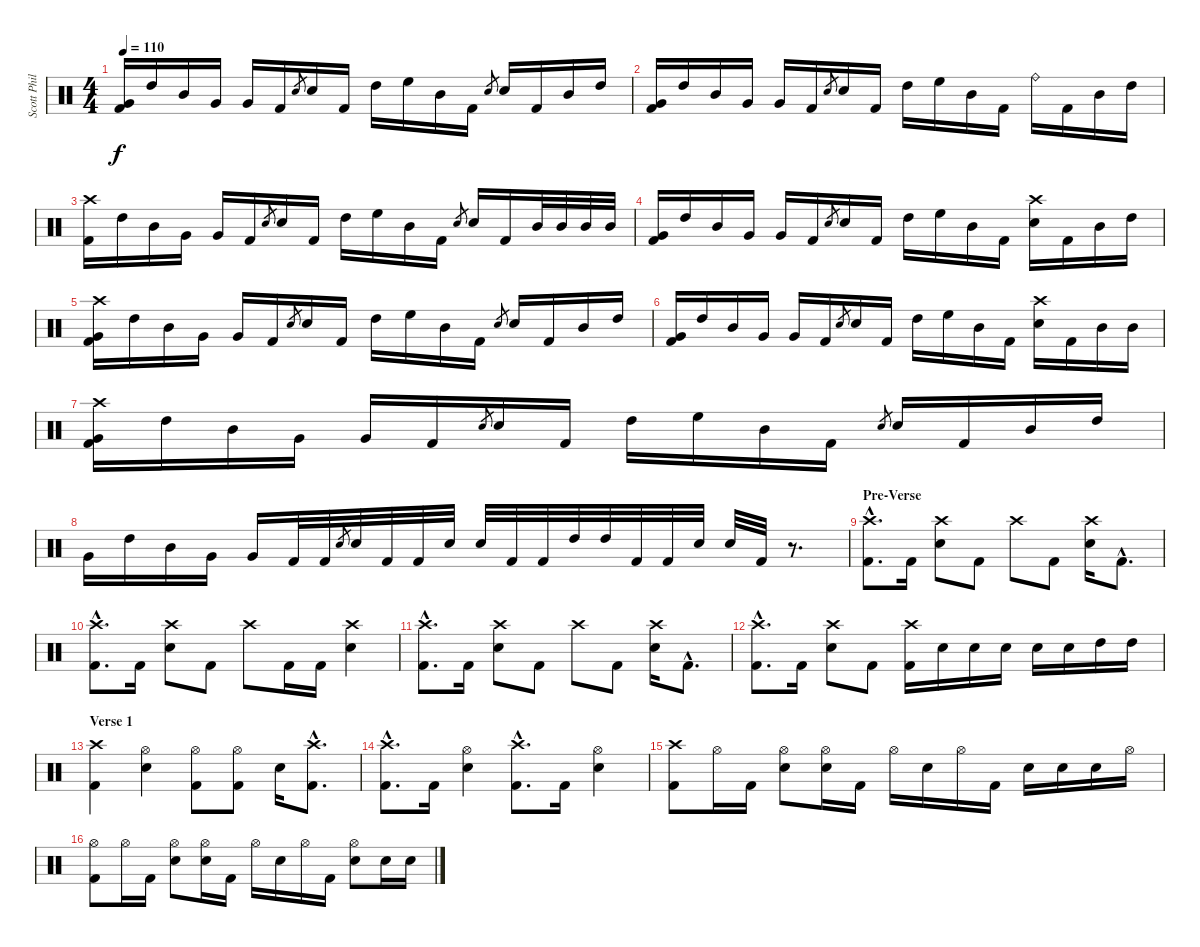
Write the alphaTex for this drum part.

\track ("Scott Phillips" "Scott Phil") {instrument percussion}
\staff {score}
\articulation defaults
\ts (4 4)
\tempo 110
\clef neutral
\ks c
("Very Low Tom (hit)" "Kick (hit) 2").16{dy f} "High Tom (hit)".16 "Mid Tom (hit)".16 "Very Low Tom (hit)".16 "Very Low Tom (hit)".16 "Kick (hit) 2".16 "Snare (hit) 2".8{gr} "Snare (hit) 2".16 "Kick (hit) 2".16 "High Tom (hit)".16 "High Floor Tom (hit)".16 "Mid Tom (hit)".16 "Kick (hit) 2".16 "Snare (hit) 2".8{gr} "Snare (hit) 2".16 "Kick (hit) 2".16 "Mid Tom (hit)".16 "High Tom (hit)".16 |
("Very Low Tom (hit)" "Kick (hit) 2").16 "High Tom (hit)".16 "Mid Tom (hit)".16 "Very Low Tom (hit)".16 "Very Low Tom (hit)".16 "Kick (hit) 2".16 "Snare (hit) 2".8{gr} "Snare (hit) 2".16 "Kick (hit) 2".16 "High Tom (hit)".16 "High Floor Tom (hit)".16 "Mid Tom (hit)".16 "Kick (hit) 2".16 "Ride (bell)".16 "Kick (hit) 2".16 "Mid Tom (hit)".16 "High Tom (hit)".16 |
("Crash high (hit)" "Kick (hit) 2").16 "High Tom (hit)".16 "Mid Tom (hit)".16 "Very Low Tom (hit)".16 "Very Low Tom (hit)".16 "Kick (hit) 2".16 "Snare (hit) 2".8{gr} "Snare (hit) 2".16 "Kick (hit) 2".16 "High Tom (hit)".16 "High Floor Tom (hit)".16 "Mid Tom (hit)".16 "Kick (hit) 2".16 "Snare (hit) 2".8{gr} "Snare (hit) 2".16 "Kick (hit) 2".16 "Mid Tom (hit)".32 "Mid Tom (hit)".32 "Mid Tom (hit)".32 "Mid Tom (hit)".32 |
("Very Low Tom (hit)" "Kick (hit) 2").16 "High Tom (hit)".16 "Mid Tom (hit)".16 "Very Low Tom (hit)".16 "Very Low Tom (hit)".16 "Kick (hit) 2".16 "Snare (hit) 2".8{gr} "Snare (hit) 2".16 "Kick (hit) 2".16 "High Tom (hit)".16 "High Floor Tom (hit)".16 "Mid Tom (hit)".16 "Kick (hit) 2".16 ("Crash high (hit)" "Snare (hit) 2").16 "Kick (hit) 2".16 "Mid Tom (hit)".16 "High Tom (hit)".16 |
("Crash high (hit)" "Very Low Tom (hit)" "Kick (hit) 2").16 "High Tom (hit)".16 "Mid Tom (hit)".16 "Very Low Tom (hit)".16 "Very Low Tom (hit)".16 "Kick (hit) 2".16 "Snare (hit) 2".8{gr} "Snare (hit) 2".16 "Kick (hit) 2".16 "High Tom (hit)".16 "High Floor Tom (hit)".16 "Mid Tom (hit)".16 "Kick (hit) 2".16 "Snare (hit) 2".8{gr} "Snare (hit) 2".16 "Kick (hit) 2".16 "Mid Tom (hit)".16 "High Tom (hit)".16 |
("Very Low Tom (hit)" "Kick (hit) 2").16 "High Tom (hit)".16 "Mid Tom (hit)".16 "Very Low Tom (hit)".16 "Very Low Tom (hit)".16 "Kick (hit) 2".16 "Snare (hit) 2".8{gr} "Snare (hit) 2".16 "Kick (hit) 2".16 "High Tom (hit)".16 "High Floor Tom (hit)".16 "Mid Tom (hit)".16 "Kick (hit) 2".16 ("Crash high (hit)" "Snare (hit) 2").16 "Kick (hit) 2".16 "Mid Tom (hit)".16 "Mid Tom (hit)".16 |
("Crash high (hit)" "Very Low Tom (hit)" "Kick (hit) 2").16 "High Tom (hit)".16 "Mid Tom (hit)".16 "Very Low Tom (hit)".16 "Very Low Tom (hit)".16 "Kick (hit) 2".16 "Snare (hit) 2".8{gr} "Snare (hit) 2".16 "Kick (hit) 2".16 "High Tom (hit)".16 "High Floor Tom (hit)".16 "Mid Tom (hit)".16 "Kick (hit) 2".16 "Snare (hit) 2".8{gr} "Snare (hit) 2".16 "Kick (hit) 2".16 "Mid Tom (hit)".16 "High Tom (hit)".16 |
"Very Low Tom (hit)".16 "High Tom (hit)".16 "Mid Tom (hit)".16 "Very Low Tom (hit)".16 "Very Low Tom (hit)".16 "Kick (hit) 2".32 "Kick (hit) 2".32 "Snare (hit) 2".8{gr} "Snare (hit) 2".32 "Kick (hit) 2".32 "Kick (hit) 2".32 "Snare (hit) 2".32 "Snare (hit) 2".32 "Kick (hit) 2".32 "Kick (hit) 2".32 "High Tom (hit)".32 "High Tom (hit)".32 "Kick (hit) 2".32 "Kick (hit) 2".32 "Snare (hit) 2".32 "Snare (hit) 2".32 "Kick (hit) 2".32 r.8{d} |
\section ("" "Pre-Verse")
("Crash high (hit)"{hac} "Kick (hit) 2"{hac}).8{d} "Kick (hit) 2".16 ("Crash high (hit)" "Snare (hit) 2").8 "Kick (hit) 2".8 "Crash high (hit)".8 "Kick (hit) 2".8 ("Crash high (hit)" "Snare (hit) 2").16 "Kick (hit) 2"{hac}.8{d} |
("Crash high (hit)"{hac} "Kick (hit) 2"{hac}).8{d} "Kick (hit) 2".16 ("Crash high (hit)" "Snare (hit) 2").8 "Kick (hit) 2".8 "Crash high (hit)".8 "Kick (hit) 2".16 "Kick (hit) 2".16 ("Crash high (hit)" "Snare (hit) 2").4 |
("Crash high (hit)"{hac} "Kick (hit) 2"{hac}).8{d} "Kick (hit) 2".16 ("Crash high (hit)" "Snare (hit) 2").8 "Kick (hit) 2".8 "Crash high (hit)".8 "Kick (hit) 2".8 ("Crash high (hit)" "Snare (hit) 2").16 "Kick (hit) 2"{hac}.8{d} |
("Crash high (hit)"{hac} "Kick (hit) 2"{hac}).8{d} "Kick (hit) 2".16 ("Crash high (hit)" "Snare (hit) 2").8 "Kick (hit) 2".8 ("Crash high (hit)" "Kick (hit) 2").16 "Snare (hit) 2".16 "Snare (hit) 2".16 "Snare (hit) 2".16 "Snare (hit) 2".16 "Snare (hit) 2".16 "High Tom (hit)".16 "High Tom (hit)".16 |
\section ("" "Verse 1")
("Crash high (hit)" "Kick (hit) 2").4 ("Hi-Hat (open)" "Snare (hit) 2").4 ("Hi-Hat (open)" "Kick (hit) 2").8 ("Hi-Hat (open)" "Kick (hit) 2").8 "Snare (hit) 2".16 ("Crash high (hit)"{hac} "Kick (hit) 2"{hac}).8{d} |
("Crash high (hit)"{hac} "Kick (hit) 2"{hac}).8{d} "Kick (hit) 2".16 ("Hi-Hat (open)" "Snare (hit) 2").4 ("Crash high (hit)"{hac} "Kick (hit) 2"{hac}).8{d} "Kick (hit) 2".16 ("Hi-Hat (open)" "Snare (hit) 2").4 |
("Crash high (hit)" "Kick (hit) 2").8 "Hi-Hat (open)".16 "Kick (hit) 2".16 ("Hi-Hat (open)" "Snare (hit) 2").8 ("Hi-Hat (open)" "Snare (hit) 2").16 "Kick (hit) 2".16 "Hi-Hat (open)".16 "Snare (hit) 2".16 "Hi-Hat (open)".16 "Kick (hit) 2".16 "Snare (hit) 2".16 "Snare (hit) 2".16 "Snare (hit) 2".16 "Hi-Hat (open)".16 |
("Hi-Hat (open)" "Kick (hit) 2").8 "Hi-Hat (open)".16 "Kick (hit) 2".16 ("Hi-Hat (open)" "Snare (hit) 2").8 ("Hi-Hat (open)" "Snare (hit) 2").16 "Kick (hit) 2".16 "Hi-Hat (open)".16 "Snare (hit) 2".16 "Hi-Hat (open)".16 "Kick (hit) 2".16 ("Hi-Hat (open)" "Snare (hit) 2").8 "Snare (hit) 2".16 "Snare (hit) 2".16
